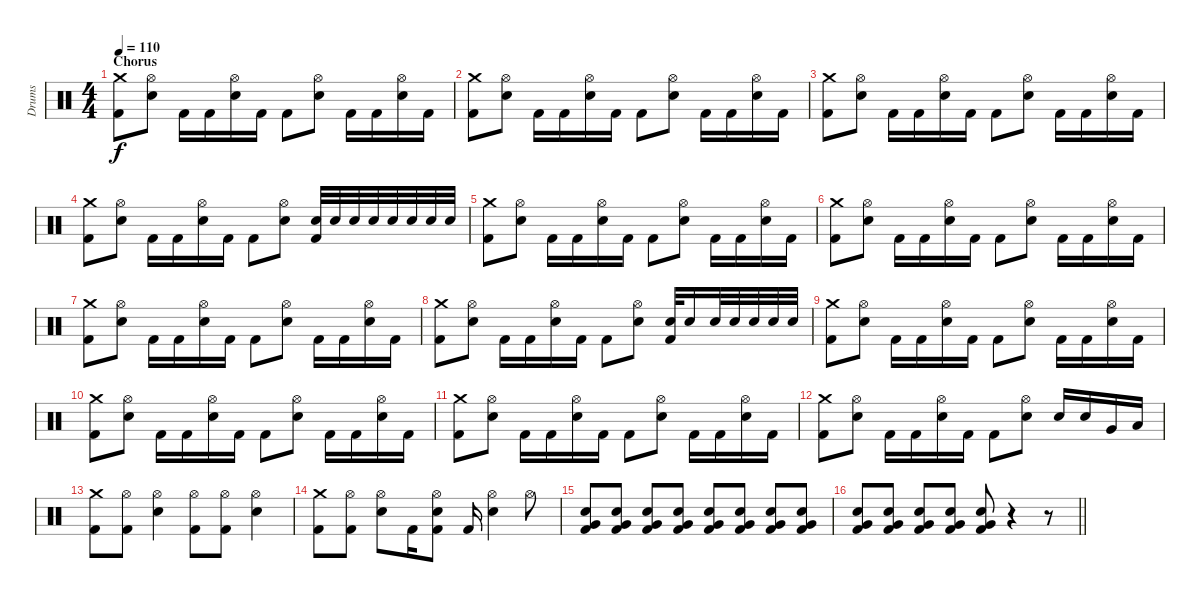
\track ("Drums" "Drums") {instrument percussion}
\staff {score}
\articulation defaults
\ts (4 4)
\section ("" "Chorus")
\tempo 110
\clef neutral
\ks c
("Crash medium (hit)" "Kick (hit) 2").8{dy f} ("Hi-Hat (open)" "Electric Snare (hit)").8 "Kick (hit) 2".16 "Kick (hit) 2".16 ("Hi-Hat (open)" "Electric Snare (hit)").16 "Kick (hit) 2".16 "Kick (hit) 2".8 ("Hi-Hat (open)" "Electric Snare (hit)").8 "Kick (hit) 2".16 "Kick (hit) 2".16 ("Hi-Hat (open)" "Electric Snare (hit)").16 "Kick (hit) 2".16 |
("Crash medium (hit)" "Kick (hit) 2").8 ("Hi-Hat (open)" "Electric Snare (hit)").8 "Kick (hit) 2".16 "Kick (hit) 2".16 ("Hi-Hat (open)" "Electric Snare (hit)").16 "Kick (hit) 2".16 "Kick (hit) 2".8 ("Hi-Hat (open)" "Electric Snare (hit)").8 "Kick (hit) 2".16 "Kick (hit) 2".16 ("Hi-Hat (open)" "Electric Snare (hit)").16 "Kick (hit) 2".16 |
("Crash medium (hit)" "Kick (hit) 2").8 ("Hi-Hat (open)" "Electric Snare (hit)").8 "Kick (hit) 2".16 "Kick (hit) 2".16 ("Hi-Hat (open)" "Electric Snare (hit)").16 "Kick (hit) 2".16 "Kick (hit) 2".8 ("Hi-Hat (open)" "Electric Snare (hit)").8 "Kick (hit) 2".16 "Kick (hit) 2".16 ("Hi-Hat (open)" "Electric Snare (hit)").16 "Kick (hit) 2".16 |
("Crash medium (hit)" "Kick (hit) 2").8 ("Hi-Hat (open)" "Electric Snare (hit)").8 "Kick (hit) 2".16 "Kick (hit) 2".16 ("Hi-Hat (open)" "Electric Snare (hit)").16 "Kick (hit) 2".16 "Kick (hit) 2".8 ("Hi-Hat (open)" "Electric Snare (hit)").8 ("Electric Snare (hit)" "Kick (hit) 2").32 "Electric Snare (hit)".32 "Electric Snare (hit)".32 "Electric Snare (hit)".32 "Electric Snare (hit)".32 "Electric Snare (hit)".32 "Electric Snare (hit)".32 "Electric Snare (hit)".32 |
("Crash medium (hit)" "Kick (hit) 2").8 ("Hi-Hat (open)" "Electric Snare (hit)").8 "Kick (hit) 2".16 "Kick (hit) 2".16 ("Hi-Hat (open)" "Electric Snare (hit)").16 "Kick (hit) 2".16 "Kick (hit) 2".8 ("Hi-Hat (open)" "Electric Snare (hit)").8 "Kick (hit) 2".16 "Kick (hit) 2".16 ("Hi-Hat (open)" "Electric Snare (hit)").16 "Kick (hit) 2".16 |
("Crash medium (hit)" "Kick (hit) 2").8 ("Hi-Hat (open)" "Electric Snare (hit)").8 "Kick (hit) 2".16 "Kick (hit) 2".16 ("Hi-Hat (open)" "Electric Snare (hit)").16 "Kick (hit) 2".16 "Kick (hit) 2".8 ("Hi-Hat (open)" "Electric Snare (hit)").8 "Kick (hit) 2".16 "Kick (hit) 2".16 ("Hi-Hat (open)" "Electric Snare (hit)").16 "Kick (hit) 2".16 |
("Crash medium (hit)" "Kick (hit) 2").8 ("Hi-Hat (open)" "Electric Snare (hit)").8 "Kick (hit) 2".16 "Kick (hit) 2".16 ("Hi-Hat (open)" "Electric Snare (hit)").16 "Kick (hit) 2".16 "Kick (hit) 2".8 ("Hi-Hat (open)" "Electric Snare (hit)").8 "Kick (hit) 2".16 "Kick (hit) 2".16 ("Hi-Hat (open)" "Electric Snare (hit)").16 "Kick (hit) 2".16 |
("Crash medium (hit)" "Kick (hit) 2").8 ("Hi-Hat (open)" "Electric Snare (hit)").8 "Kick (hit) 2".16 "Kick (hit) 2".16 ("Hi-Hat (open)" "Electric Snare (hit)").16 "Kick (hit) 2".16 "Kick (hit) 2".8 ("Hi-Hat (open)" "Electric Snare (hit)").8 ("Electric Snare (hit)" "Kick (hit) 2").32 "Electric Snare (hit)".16 "Electric Snare (hit)".32 "Electric Snare (hit)".32 "Electric Snare (hit)".32 "Electric Snare (hit)".32 "Electric Snare (hit)".32 |
("Crash medium (hit)" "Kick (hit) 2").8 ("Hi-Hat (open)" "Electric Snare (hit)").8 "Kick (hit) 2".16 "Kick (hit) 2".16 ("Hi-Hat (open)" "Electric Snare (hit)").16 "Kick (hit) 2".16 "Kick (hit) 2".8 ("Hi-Hat (open)" "Electric Snare (hit)").8 "Kick (hit) 2".16 "Kick (hit) 2".16 ("Hi-Hat (open)" "Electric Snare (hit)").16 "Kick (hit) 2".16 |
("Crash medium (hit)" "Kick (hit) 2").8 ("Hi-Hat (open)" "Electric Snare (hit)").8 "Kick (hit) 2".16 "Kick (hit) 2".16 ("Hi-Hat (open)" "Electric Snare (hit)").16 "Kick (hit) 2".16 "Kick (hit) 2".8 ("Hi-Hat (open)" "Electric Snare (hit)").8 "Kick (hit) 2".16 "Kick (hit) 2".16 ("Hi-Hat (open)" "Electric Snare (hit)").16 "Kick (hit) 2".16 |
("Crash medium (hit)" "Kick (hit) 2").8 ("Hi-Hat (open)" "Electric Snare (hit)").8 "Kick (hit) 2".16 "Kick (hit) 2".16 ("Hi-Hat (open)" "Electric Snare (hit)").16 "Kick (hit) 2".16 "Kick (hit) 2".8 ("Hi-Hat (open)" "Electric Snare (hit)").8 "Kick (hit) 2".16 "Kick (hit) 2".16 ("Hi-Hat (open)" "Electric Snare (hit)").16 "Kick (hit) 2".16 |
("Crash medium (hit)" "Kick (hit) 2").8 ("Hi-Hat (open)" "Electric Snare (hit)").8 "Kick (hit) 2".16 "Kick (hit) 2".16 ("Hi-Hat (open)" "Electric Snare (hit)").16 "Kick (hit) 2".16 "Kick (hit) 2".8 ("Hi-Hat (open)" "Electric Snare (hit)").8 "Electric Snare (hit)".16 "Electric Snare (hit)".16 "Very Low Tom (hit)".16 "Low Tom (hit)".16 |
("Crash medium (hit)" "Kick (hit) 2").8 ("Hi-Hat (open)" "Kick (hit) 2").8 ("Hi-Hat (open)" "Electric Snare (hit)").4 ("Hi-Hat (open)" "Kick (hit) 2").8 ("Hi-Hat (open)" "Kick (hit) 2").8 ("Hi-Hat (open)" "Electric Snare (hit)").4 |
("Crash medium (hit)" "Kick (hit) 2").8 ("Hi-Hat (open)" "Kick (hit) 2").8 ("Hi-Hat (open)" "Electric Snare (hit)").8 "Kick (hit) 2".16 ("Hi-Hat (open)" "Electric Snare (hit)" "Kick (hit) 2").8 "Kick (hit) 2".16 ("Hi-Hat (open)" "Electric Snare (hit)").4 "Hi-Hat (open)".8 |
("Very Low Tom (hit)" "Electric Snare (hit)" "Kick (hit) 2").8 ("Very Low Tom (hit)" "Electric Snare (hit)" "Kick (hit) 2").8 ("Very Low Tom (hit)" "Electric Snare (hit)" "Kick (hit) 2").8 ("Very Low Tom (hit)" "Electric Snare (hit)" "Kick (hit) 2").8 ("Very Low Tom (hit)" "Electric Snare (hit)" "Kick (hit) 2").8 ("Very Low Tom (hit)" "Electric Snare (hit)" "Kick (hit) 2").8 ("Very Low Tom (hit)" "Electric Snare (hit)" "Kick (hit) 2").8 ("Very Low Tom (hit)" "Electric Snare (hit)" "Kick (hit) 2").8 |
\barLineRight lightlight
("Very Low Tom (hit)" "Electric Snare (hit)" "Kick (hit) 2").8 ("Very Low Tom (hit)" "Electric Snare (hit)" "Kick (hit) 2").8 ("Very Low Tom (hit)" "Electric Snare (hit)" "Kick (hit) 2").8 ("Very Low Tom (hit)" "Electric Snare (hit)" "Kick (hit) 2").8 ("Very Low Tom (hit)" "Electric Snare (hit)" "Kick (hit) 2").8 r.4 r.8
